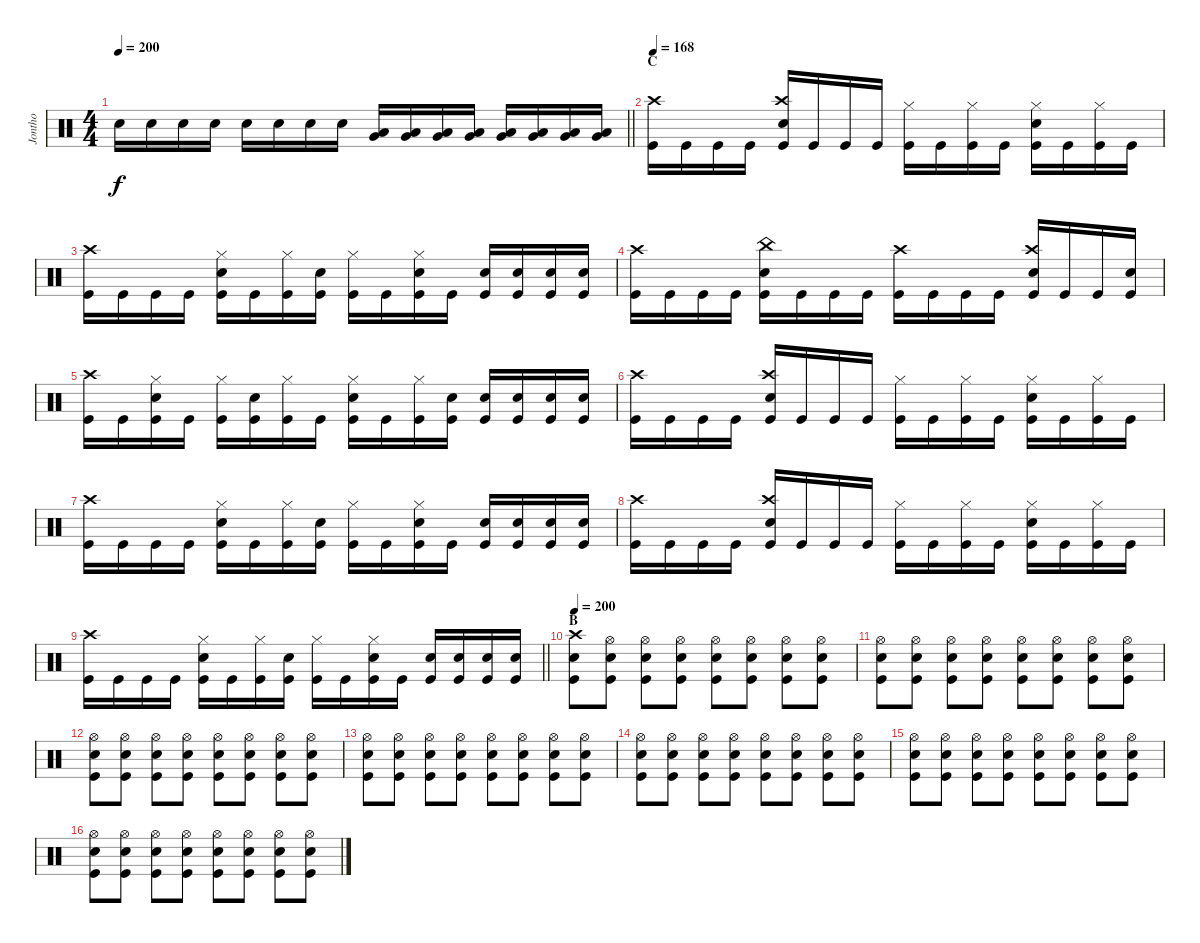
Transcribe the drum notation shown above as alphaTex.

\track ("Jontho" "Jontho") {instrument percussion}
\staff {score}
\articulation defaults
\ts (4 4)
\tempo 200
\clef neutral
\barLineRight lightlight
\ks c "Snare (hit) 2".16{dy f} "Snare (hit) 2".16 "Snare (hit) 2".16 "Snare (hit) 2".16 "Snare (hit) 2".16 "Snare (hit) 2".16 "Snare (hit) 2".16 "Snare (hit) 2".16
("Low Tom (hit)" "Very Low Tom (hit)").16 ("Low Tom (hit)" "Very Low Tom (hit)").16 ("Low Tom (hit)" "Very Low Tom (hit)").16 ("Low Tom (hit)" "Very Low Tom (hit)").16 ("Very Low Tom (hit)" "Low Floor Tom (hit)").16 ("Very Low Tom (hit)" "Low Floor Tom (hit)").16 ("Very Low Tom (hit)" "Low Floor Tom (hit)").16 ("Very Low Tom (hit)" "Low Floor Tom (hit)").16 |
\section ("" "C")
\tempo 168
("Crash high (hit)" "Kick (hit)").16 "Kick (hit)".16 "Kick (hit)".16 "Kick (hit)".16 ("Crash high (hit)" "Snare (hit) 2" "Kick (hit)").16 "Kick (hit)".16 "Kick (hit)".16 "Kick (hit)".16 ("Hi-Hat (closed)" "Kick (hit)").16 "Kick (hit)".16 ("Hi-Hat (closed)" "Kick (hit)").16 "Kick (hit)".16 ("Hi-Hat (closed)" "Snare (hit) 2" "Kick (hit)").16 "Kick (hit)".16 ("Hi-Hat (closed)" "Kick (hit)").16 "Kick (hit)".16 |
("Crash high (hit)" "Kick (hit)").16 "Kick (hit)".16 "Kick (hit)".16 "Kick (hit)".16 ("Hi-Hat (closed)" "Snare (hit) 2" "Kick (hit)").16 "Kick (hit)".16 ("Hi-Hat (closed)" "Kick (hit)").16 ("Snare (hit) 2" "Kick (hit)").16 ("Hi-Hat (closed)" "Kick (hit)").16 "Kick (hit)".16 ("Hi-Hat (closed)" "Snare (hit) 2" "Kick (hit)").16 "Kick (hit)".16 ("Snare (hit) 2" "Kick (hit)").16 ("Snare (hit) 2" "Kick (hit)").16 ("Snare (hit) 2" "Kick (hit)").16 ("Snare (hit) 2" "Kick (hit)").16 |
("Crash high (hit)" "Kick (hit)").16 "Kick (hit)".16 "Kick (hit)".16 "Kick (hit)".16 ("China (hit)" "Snare (hit) 2" "Kick (hit)").16 "Kick (hit)".16 "Kick (hit)".16 "Kick (hit)".16 ("Crash high (hit)" "Kick (hit)").16 "Kick (hit)".16 "Kick (hit)".16 "Kick (hit)".16 ("Crash high (hit)" "Snare (hit) 2" "Kick (hit)").16 "Kick (hit)".16 "Kick (hit)".16 ("Snare (hit) 2" "Kick (hit)").16 |
("Crash high (hit)" "Kick (hit)").16 "Kick (hit)".16 ("Hi-Hat (closed)" "Snare (hit) 2" "Kick (hit)").16 "Kick (hit)".16 ("Hi-Hat (closed)" "Kick (hit)").16 ("Snare (hit) 2" "Kick (hit)").16 ("Hi-Hat (closed)" "Kick (hit)").16 "Kick (hit)".16 ("Hi-Hat (closed)" "Snare (hit) 2" "Kick (hit)").16 "Kick (hit)".16 ("Hi-Hat (closed)" "Kick (hit)").16 ("Snare (hit) 2" "Kick (hit)").16 ("Snare (hit) 2" "Kick (hit)").16 ("Snare (hit) 2" "Kick (hit)").16 ("Snare (hit) 2" "Kick (hit)").16 ("Snare (hit) 2" "Kick (hit)").16 |
("Crash high (hit)" "Kick (hit)").16 "Kick (hit)".16 "Kick (hit)".16 "Kick (hit)".16 ("Crash high (hit)" "Snare (hit) 2" "Kick (hit)").16 "Kick (hit)".16 "Kick (hit)".16 "Kick (hit)".16 ("Hi-Hat (closed)" "Kick (hit)").16 "Kick (hit)".16 ("Hi-Hat (closed)" "Kick (hit)").16 "Kick (hit)".16 ("Hi-Hat (closed)" "Snare (hit) 2" "Kick (hit)").16 "Kick (hit)".16 ("Hi-Hat (closed)" "Kick (hit)").16 "Kick (hit)".16 |
("Crash high (hit)" "Kick (hit)").16 "Kick (hit)".16 "Kick (hit)".16 "Kick (hit)".16 ("Hi-Hat (closed)" "Snare (hit) 2" "Kick (hit)").16 "Kick (hit)".16 ("Hi-Hat (closed)" "Kick (hit)").16 ("Snare (hit) 2" "Kick (hit)").16 ("Hi-Hat (closed)" "Kick (hit)").16 "Kick (hit)".16 ("Hi-Hat (closed)" "Snare (hit) 2" "Kick (hit)").16 "Kick (hit)".16 ("Snare (hit) 2" "Kick (hit)").16 ("Snare (hit) 2" "Kick (hit)").16 ("Snare (hit) 2" "Kick (hit)").16 ("Snare (hit) 2" "Kick (hit)").16 |
("Crash high (hit)" "Kick (hit)").16 "Kick (hit)".16 "Kick (hit)".16 "Kick (hit)".16 ("Crash high (hit)" "Snare (hit) 2" "Kick (hit)").16 "Kick (hit)".16 "Kick (hit)".16 "Kick (hit)".16 ("Hi-Hat (closed)" "Kick (hit)").16 "Kick (hit)".16 ("Hi-Hat (closed)" "Kick (hit)").16 "Kick (hit)".16 ("Hi-Hat (closed)" "Snare (hit) 2" "Kick (hit)").16 "Kick (hit)".16 ("Hi-Hat (closed)" "Kick (hit)").16 "Kick (hit)".16 |
\barLineRight lightlight
("Crash high (hit)" "Kick (hit)").16 "Kick (hit)".16 "Kick (hit)".16 "Kick (hit)".16 ("Hi-Hat (closed)" "Snare (hit) 2" "Kick (hit)").16 "Kick (hit)".16 ("Hi-Hat (closed)" "Kick (hit)").16 ("Snare (hit) 2" "Kick (hit)").16 ("Hi-Hat (closed)" "Kick (hit)").16 "Kick (hit)".16 ("Hi-Hat (closed)" "Snare (hit) 2" "Kick (hit)").16 "Kick (hit)".16 ("Snare (hit) 2" "Kick (hit)").16 ("Snare (hit) 2" "Kick (hit)").16 ("Snare (hit) 2" "Kick (hit)").16 ("Snare (hit) 2" "Kick (hit)").16 |
\section ("" "B")
\tempo 200
("Crash high (hit)" "Snare (hit) 2" "Kick (hit)").8 ("Hi-Hat (open)" "Snare (hit) 2" "Kick (hit)").8 ("Hi-Hat (open)" "Snare (hit) 2" "Kick (hit)").8 ("Hi-Hat (open)" "Snare (hit) 2" "Kick (hit)").8 ("Hi-Hat (open)" "Snare (hit) 2" "Kick (hit)").8 ("Hi-Hat (open)" "Snare (hit) 2" "Kick (hit)").8 ("Hi-Hat (open)" "Snare (hit) 2" "Kick (hit)").8 ("Hi-Hat (open)" "Snare (hit) 2" "Kick (hit)").8 |
("Hi-Hat (open)" "Snare (hit) 2" "Kick (hit)").8 ("Hi-Hat (open)" "Snare (hit) 2" "Kick (hit)").8 ("Hi-Hat (open)" "Snare (hit) 2" "Kick (hit)").8 ("Hi-Hat (open)" "Snare (hit) 2" "Kick (hit)").8 ("Hi-Hat (open)" "Snare (hit) 2" "Kick (hit)").8 ("Hi-Hat (open)" "Snare (hit) 2" "Kick (hit)").8 ("Hi-Hat (open)" "Snare (hit) 2" "Kick (hit)").8 ("Hi-Hat (open)" "Snare (hit) 2" "Kick (hit)").8 |
("Hi-Hat (open)" "Snare (hit) 2" "Kick (hit)").8 ("Hi-Hat (open)" "Snare (hit) 2" "Kick (hit)").8 ("Hi-Hat (open)" "Snare (hit) 2" "Kick (hit)").8 ("Hi-Hat (open)" "Snare (hit) 2" "Kick (hit)").8 ("Hi-Hat (open)" "Snare (hit) 2" "Kick (hit)").8 ("Hi-Hat (open)" "Snare (hit) 2" "Kick (hit)").8 ("Hi-Hat (open)" "Snare (hit) 2" "Kick (hit)").8 ("Hi-Hat (open)" "Snare (hit) 2" "Kick (hit)").8 |
("Hi-Hat (open)" "Snare (hit) 2" "Kick (hit)").8 ("Hi-Hat (open)" "Snare (hit) 2" "Kick (hit)").8 ("Hi-Hat (open)" "Snare (hit) 2" "Kick (hit)").8 ("Hi-Hat (open)" "Snare (hit) 2" "Kick (hit)").8 ("Hi-Hat (open)" "Snare (hit) 2" "Kick (hit)").8 ("Hi-Hat (open)" "Snare (hit) 2" "Kick (hit)").8 ("Hi-Hat (open)" "Snare (hit) 2" "Kick (hit)").8 ("Hi-Hat (open)" "Snare (hit) 2" "Kick (hit)").8 |
("Hi-Hat (open)" "Snare (hit) 2" "Kick (hit)").8 ("Hi-Hat (open)" "Snare (hit) 2" "Kick (hit)").8 ("Hi-Hat (open)" "Snare (hit) 2" "Kick (hit)").8 ("Hi-Hat (open)" "Snare (hit) 2" "Kick (hit)").8 ("Hi-Hat (open)" "Snare (hit) 2" "Kick (hit)").8 ("Hi-Hat (open)" "Snare (hit) 2" "Kick (hit)").8 ("Hi-Hat (open)" "Snare (hit) 2" "Kick (hit)").8 ("Hi-Hat (open)" "Snare (hit) 2" "Kick (hit)").8 |
("Hi-Hat (open)" "Snare (hit) 2" "Kick (hit)").8 ("Hi-Hat (open)" "Snare (hit) 2" "Kick (hit)").8 ("Hi-Hat (open)" "Snare (hit) 2" "Kick (hit)").8 ("Hi-Hat (open)" "Snare (hit) 2" "Kick (hit)").8 ("Hi-Hat (open)" "Snare (hit) 2" "Kick (hit)").8 ("Hi-Hat (open)" "Snare (hit) 2" "Kick (hit)").8 ("Hi-Hat (open)" "Snare (hit) 2" "Kick (hit)").8 ("Hi-Hat (open)" "Snare (hit) 2" "Kick (hit)").8 |
("Hi-Hat (open)" "Snare (hit) 2" "Kick (hit)").8 ("Hi-Hat (open)" "Snare (hit) 2" "Kick (hit)").8 ("Hi-Hat (open)" "Snare (hit) 2" "Kick (hit)").8 ("Hi-Hat (open)" "Snare (hit) 2" "Kick (hit)").8 ("Hi-Hat (open)" "Snare (hit) 2" "Kick (hit)").8 ("Hi-Hat (open)" "Snare (hit) 2" "Kick (hit)").8 ("Hi-Hat (open)" "Snare (hit) 2" "Kick (hit)").8 ("Hi-Hat (open)" "Snare (hit) 2" "Kick (hit)").8
